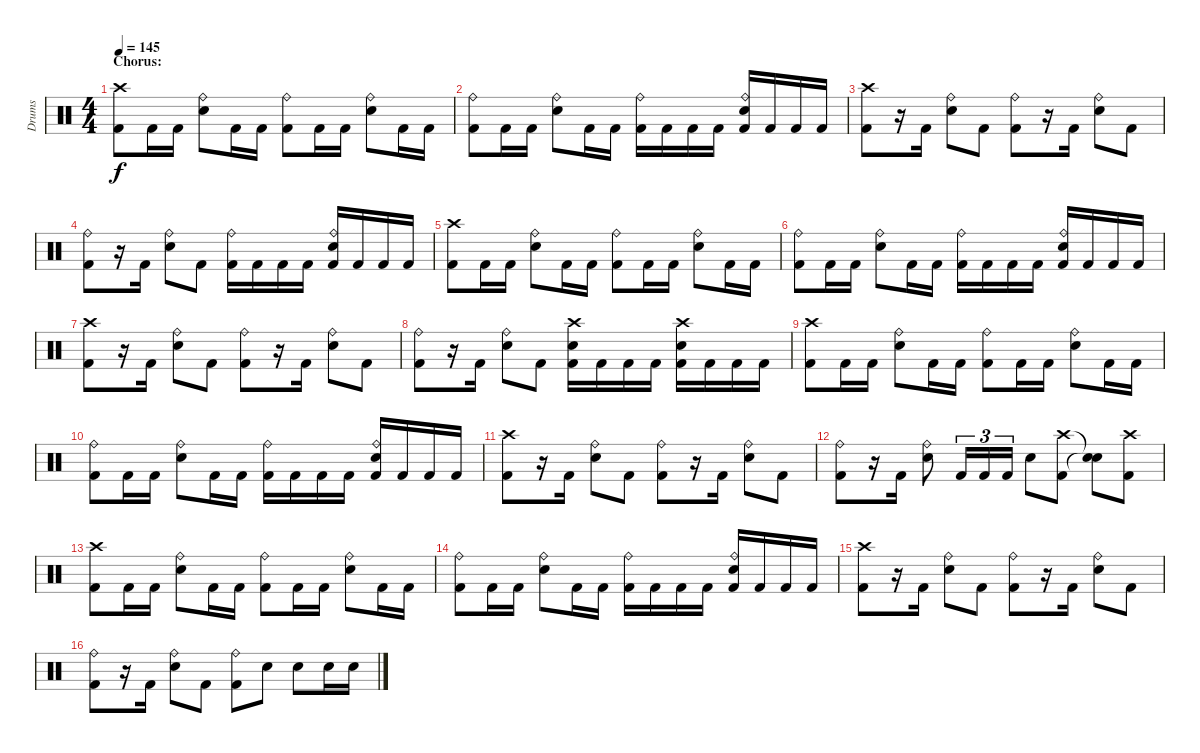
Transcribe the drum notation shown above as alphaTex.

\track ("Drums" "Drums") {instrument percussion}
\staff {score}
\articulation defaults
\ts (4 4)
\section ("" "Chorus:")
\tempo 145
\clef neutral
\ks c
("Crash high (hit)" "Kick (hit) 2").8{dy f} "Kick (hit) 2".16 "Kick (hit) 2".16 ("Ride (bell)" "Snare (hit) 2").8 "Kick (hit) 2".16 "Kick (hit) 2".16 ("Ride (bell)" "Kick (hit) 2").8 "Kick (hit) 2".16 "Kick (hit) 2".16 ("Ride (bell)" "Snare (hit) 2").8 "Kick (hit) 2".16 "Kick (hit) 2".16 |
("Ride (bell)" "Kick (hit) 2").8 "Kick (hit) 2".16 "Kick (hit) 2".16 ("Ride (bell)" "Snare (hit) 2").8 "Kick (hit) 2".16 "Kick (hit) 2".16 ("Ride (bell)" "Kick (hit) 2").16 "Kick (hit) 2".16 "Kick (hit) 2".16 "Kick (hit) 2".16 ("Ride (bell)" "Snare (hit) 2" "Kick (hit) 2").16 "Kick (hit) 2".16 "Kick (hit) 2".16 "Kick (hit) 2".16 |
("Crash high (hit)" "Kick (hit) 2").8 r.16 "Kick (hit) 2".16 ("Ride (bell)" "Snare (hit) 2").8 "Kick (hit) 2".8 ("Ride (bell)" "Kick (hit) 2").8 r.16 "Kick (hit) 2".16 ("Ride (bell)" "Snare (hit) 2").8 "Kick (hit) 2".8 |
("Ride (bell)" "Kick (hit) 2").8 r.16 "Kick (hit) 2".16 ("Ride (bell)" "Snare (hit) 2").8 "Kick (hit) 2".8 ("Ride (bell)" "Kick (hit) 2").16 "Kick (hit) 2".16 "Kick (hit) 2".16 "Kick (hit) 2".16 ("Ride (bell)" "Snare (hit) 2" "Kick (hit) 2").16 "Kick (hit) 2".16 "Kick (hit) 2".16 "Kick (hit) 2".16 |
("Crash high (hit)" "Kick (hit) 2").8 "Kick (hit) 2".16 "Kick (hit) 2".16 ("Ride (bell)" "Snare (hit) 2").8 "Kick (hit) 2".16 "Kick (hit) 2".16 ("Ride (bell)" "Kick (hit) 2").8 "Kick (hit) 2".16 "Kick (hit) 2".16 ("Ride (bell)" "Snare (hit) 2").8 "Kick (hit) 2".16 "Kick (hit) 2".16 |
("Ride (bell)" "Kick (hit) 2").8 "Kick (hit) 2".16 "Kick (hit) 2".16 ("Ride (bell)" "Snare (hit) 2").8 "Kick (hit) 2".16 "Kick (hit) 2".16 ("Ride (bell)" "Kick (hit) 2").16 "Kick (hit) 2".16 "Kick (hit) 2".16 "Kick (hit) 2".16 ("Ride (bell)" "Snare (hit) 2" "Kick (hit) 2").16 "Kick (hit) 2".16 "Kick (hit) 2".16 "Kick (hit) 2".16 |
("Crash high (hit)" "Kick (hit) 2").8 r.16 "Kick (hit) 2".16 ("Ride (bell)" "Snare (hit) 2").8 "Kick (hit) 2".8 ("Ride (bell)" "Kick (hit) 2").8 r.16 "Kick (hit) 2".16 ("Ride (bell)" "Snare (hit) 2").8 "Kick (hit) 2".8 |
("Ride (bell)" "Kick (hit) 2").8 r.16 "Kick (hit) 2".16 ("Ride (bell)" "Snare (hit) 2").8 "Kick (hit) 2".8 ("Crash high (hit)" "Snare (hit) 2" "Kick (hit) 2").16 "Kick (hit) 2".16 "Kick (hit) 2".16 "Kick (hit) 2".16 ("Crash high (hit)" "Snare (hit) 2" "Kick (hit) 2").16 "Kick (hit) 2".16 "Kick (hit) 2".16 "Kick (hit) 2".16 |
("Crash high (hit)" "Kick (hit) 2").8 "Kick (hit) 2".16 "Kick (hit) 2".16 ("Ride (bell)" "Snare (hit) 2").8 "Kick (hit) 2".16 "Kick (hit) 2".16 ("Ride (bell)" "Kick (hit) 2").8 "Kick (hit) 2".16 "Kick (hit) 2".16 ("Ride (bell)" "Snare (hit) 2").8 "Kick (hit) 2".16 "Kick (hit) 2".16 |
("Ride (bell)" "Kick (hit) 2").8 "Kick (hit) 2".16 "Kick (hit) 2".16 ("Ride (bell)" "Snare (hit) 2").8 "Kick (hit) 2".16 "Kick (hit) 2".16 ("Ride (bell)" "Kick (hit) 2").16 "Kick (hit) 2".16 "Kick (hit) 2".16 "Kick (hit) 2".16 ("Ride (bell)" "Snare (hit) 2" "Kick (hit) 2").16 "Kick (hit) 2".16 "Kick (hit) 2".16 "Kick (hit) 2".16 |
("Crash high (hit)" "Kick (hit) 2").8 r.16 "Kick (hit) 2".16 ("Ride (bell)" "Snare (hit) 2").8 "Kick (hit) 2".8 ("Ride (bell)" "Kick (hit) 2").8 r.16 "Kick (hit) 2".16 ("Ride (bell)" "Snare (hit) 2").8 "Kick (hit) 2".8 |
("Ride (bell)" "Kick (hit) 2").8 r.16 "Kick (hit) 2".16 ("Ride (bell)" "Snare (hit) 2").8 "Kick (hit) 2".16{tu (3 2)} "Kick (hit) 2".16{tu (3 2)} "Kick (hit) 2".16{tu (3 2)} "Snare (hit) 2".8 ("Crash high (hit)" "Kick (hit) 2").8 ("Snare (hit)"{t} "Snare (hit)"{t}).8 ("Crash high (hit)" "Kick (hit) 2").8 |
("Crash high (hit)" "Kick (hit) 2").8 "Kick (hit) 2".16 "Kick (hit) 2".16 ("Ride (bell)" "Snare (hit) 2").8 "Kick (hit) 2".16 "Kick (hit) 2".16 ("Ride (bell)" "Kick (hit) 2").8 "Kick (hit) 2".16 "Kick (hit) 2".16 ("Ride (bell)" "Snare (hit) 2").8 "Kick (hit) 2".16 "Kick (hit) 2".16 |
("Ride (bell)" "Kick (hit) 2").8 "Kick (hit) 2".16 "Kick (hit) 2".16 ("Ride (bell)" "Snare (hit) 2").8 "Kick (hit) 2".16 "Kick (hit) 2".16 ("Ride (bell)" "Kick (hit) 2").16 "Kick (hit) 2".16 "Kick (hit) 2".16 "Kick (hit) 2".16 ("Ride (bell)" "Snare (hit) 2" "Kick (hit) 2").16 "Kick (hit) 2".16 "Kick (hit) 2".16 "Kick (hit) 2".16 |
("Crash high (hit)" "Kick (hit) 2").8 r.16 "Kick (hit) 2".16 ("Ride (bell)" "Snare (hit) 2").8 "Kick (hit) 2".8 ("Ride (bell)" "Kick (hit) 2").8 r.16 "Kick (hit) 2".16 ("Ride (bell)" "Snare (hit) 2").8 "Kick (hit) 2".8 |
("Ride (bell)" "Kick (hit) 2").8 r.16 "Kick (hit) 2".16 ("Ride (bell)" "Snare (hit) 2").8 "Kick (hit) 2".8 ("Ride (bell)" "Kick (hit) 2").8 "Snare (hit) 2".8 "Snare (hit) 2".8 "Snare (hit) 2".16 "Snare (hit) 2".16
